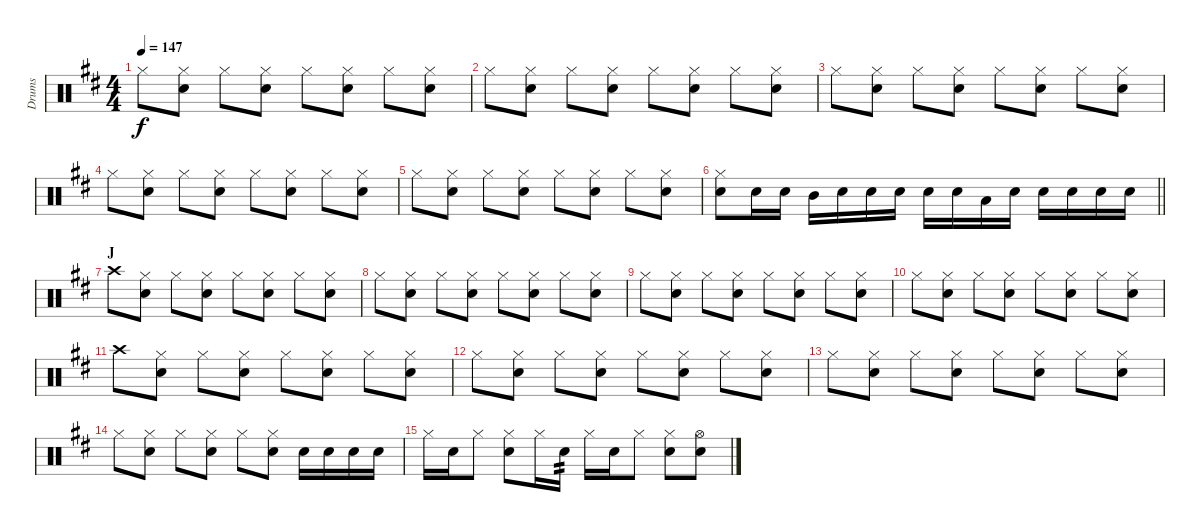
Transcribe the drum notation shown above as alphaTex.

\track ("Drums" "Drums") {instrument percussion}
\staff {score}
\articulation defaults
\ts (4 4)
\tempo 147
\clef neutral
\ks d "Hi-Hat (closed)".8{dy f}
("Hi-Hat (closed)" "Snare (hit) 2").8 "Hi-Hat (closed)".8 ("Hi-Hat (closed)" "Snare (hit) 2").8 "Hi-Hat (closed)".8 ("Hi-Hat (closed)" "Snare (hit) 2").8 "Hi-Hat (closed)".8 ("Hi-Hat (closed)" "Snare (hit) 2").8 |
"Hi-Hat (closed)".8 ("Hi-Hat (closed)" "Snare (hit) 2").8 "Hi-Hat (closed)".8 ("Hi-Hat (closed)" "Snare (hit) 2").8 "Hi-Hat (closed)".8 ("Hi-Hat (closed)" "Snare (hit) 2").8 "Hi-Hat (closed)".8 ("Hi-Hat (closed)" "Snare (hit) 2").8 |
"Hi-Hat (closed)".8 ("Hi-Hat (closed)" "Snare (hit) 2").8 "Hi-Hat (closed)".8 ("Hi-Hat (closed)" "Snare (hit) 2").8 "Hi-Hat (closed)".8 ("Hi-Hat (closed)" "Snare (hit) 2").8 "Hi-Hat (closed)".8 ("Hi-Hat (closed)" "Snare (hit) 2").8 |
"Hi-Hat (closed)".8 ("Hi-Hat (closed)" "Snare (hit) 2").8 "Hi-Hat (closed)".8 ("Hi-Hat (closed)" "Snare (hit) 2").8 "Hi-Hat (closed)".8 ("Hi-Hat (closed)" "Snare (hit) 2").8 "Hi-Hat (closed)".8 ("Hi-Hat (closed)" "Snare (hit) 2").8 |
"Hi-Hat (closed)".8 ("Hi-Hat (closed)" "Snare (hit) 2").8 "Hi-Hat (closed)".8 ("Hi-Hat (closed)" "Snare (hit) 2").8 "Hi-Hat (closed)".8 ("Hi-Hat (closed)" "Snare (hit) 2").8 "Hi-Hat (closed)".8 ("Hi-Hat (closed)" "Snare (hit) 2").8 |
\barLineRight lightlight
("Hi-Hat (closed)" "Snare (hit) 2").8 "Snare (hit) 2".16 "Snare (hit) 2".16 "Mid Tom (hit)".16 "Snare (hit) 2".16 "Snare (hit) 2".16 "Snare (hit) 2".16 "Snare (hit) 2".16 "Snare (hit) 2".16 "Low Tom (hit)".16 "Snare (hit) 2".16 "Snare (hit) 2".16 "Snare (hit) 2".16 "Snare (hit) 2".16 "Snare (hit) 2".16 |
\section ("" "J")
"Crash high (hit)".8 ("Hi-Hat (closed)" "Snare (hit) 2").8 "Hi-Hat (closed)".8 ("Hi-Hat (closed)" "Snare (hit) 2").8 "Hi-Hat (closed)".8 ("Hi-Hat (closed)" "Snare (hit) 2").8 "Hi-Hat (closed)".8 ("Hi-Hat (closed)" "Snare (hit) 2").8 |
"Hi-Hat (closed)".8 ("Hi-Hat (closed)" "Snare (hit) 2").8 "Hi-Hat (closed)".8 ("Hi-Hat (closed)" "Snare (hit) 2").8 "Hi-Hat (closed)".8 ("Hi-Hat (closed)" "Snare (hit) 2").8 "Hi-Hat (closed)".8 ("Hi-Hat (closed)" "Snare (hit) 2").8 |
"Hi-Hat (closed)".8 ("Hi-Hat (closed)" "Snare (hit) 2").8 "Hi-Hat (closed)".8 ("Hi-Hat (closed)" "Snare (hit) 2").8 "Hi-Hat (closed)".8 ("Hi-Hat (closed)" "Snare (hit) 2").8 "Hi-Hat (closed)".8 ("Hi-Hat (closed)" "Snare (hit) 2").8 |
"Hi-Hat (closed)".8 ("Hi-Hat (closed)" "Snare (hit) 2").8 "Hi-Hat (closed)".8 ("Hi-Hat (closed)" "Snare (hit) 2").8 "Hi-Hat (closed)".8 ("Hi-Hat (closed)" "Snare (hit) 2").8 "Hi-Hat (closed)".8 ("Hi-Hat (closed)" "Snare (hit) 2").8 |
"Crash high (hit)".8 ("Hi-Hat (closed)" "Snare (hit) 2").8 "Hi-Hat (closed)".8 ("Hi-Hat (closed)" "Snare (hit) 2").8 "Hi-Hat (closed)".8 ("Hi-Hat (closed)" "Snare (hit) 2").8 "Hi-Hat (closed)".8 ("Hi-Hat (closed)" "Snare (hit) 2").8 |
"Hi-Hat (closed)".8 ("Hi-Hat (closed)" "Snare (hit) 2").8 "Hi-Hat (closed)".8 ("Hi-Hat (closed)" "Snare (hit) 2").8 "Hi-Hat (closed)".8 ("Hi-Hat (closed)" "Snare (hit) 2").8 "Hi-Hat (closed)".8 ("Hi-Hat (closed)" "Snare (hit) 2").8 |
"Hi-Hat (closed)".8 ("Hi-Hat (closed)" "Snare (hit) 2").8 "Hi-Hat (closed)".8 ("Hi-Hat (closed)" "Snare (hit) 2").8 "Hi-Hat (closed)".8 ("Hi-Hat (closed)" "Snare (hit) 2").8 "Hi-Hat (closed)".8 ("Hi-Hat (closed)" "Snare (hit) 2").8 |
"Hi-Hat (closed)".8 ("Hi-Hat (closed)" "Snare (hit) 2").8 "Hi-Hat (closed)".8 ("Hi-Hat (closed)" "Snare (hit) 2").8 "Hi-Hat (closed)".8 ("Hi-Hat (closed)" "Snare (hit) 2").8 "Snare (hit) 2".16 "Snare (hit) 2".16 "Snare (hit) 2".16 "Snare (hit) 2".16 |
"Hi-Hat (closed)".16 "Snare (hit) 2".16 "Hi-Hat (closed)".8 ("Hi-Hat (closed)" "Snare (hit) 2").8 "Hi-Hat (closed)".16 "Snare (hit) 2".16{tp 2} "Hi-Hat (closed)".16 "Snare (hit) 2".16 "Hi-Hat (closed)".8 ("Snare (hit) 2" "Hi-Hat (closed)").8 ("Snare (hit) 2" "Hi-Hat (open)").8
